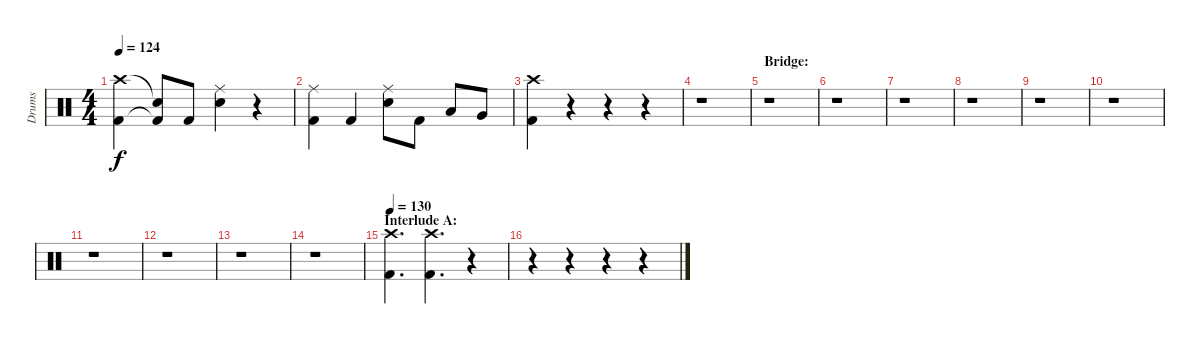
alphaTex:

\track ("Drums" "Drums") {instrument percussion}
\staff {score}
\articulation defaults
\ts (4 4)
\tempo 124
\clef neutral
\ks c
("Crash high (hit)" "Kick (hit) 2").4{dy f} ("Snare (hit)"{t} "Kick (hit) 2"{t}).8 "Kick (hit) 2".8 ("Ride (middle)" "Electric Snare (hit)").4 r.4 |
("Ride (middle)" "Kick (hit) 2").4 "Kick (hit) 2".4 ("Ride (middle)" "Electric Snare (hit)").8 "Kick (hit) 2".8 "Low Tom (hit)".8 "Very Low Tom (hit)".8 |
("Crash high (hit)" "Kick (hit) 2").4 r.4 r.4 r.4 |
r.1 |
\section ("" "Bridge:")
r.1 |
r.1 |
r.1 |
r.1 |
r.1 |
r.1 |
r.1 |
r.1 |
r.1 |
r.1 |
\section ("" "Interlude A:")
\tempo 130
("Crash high (hit)" "Kick (hit) 2").4{d} ("Crash high (hit)" "Kick (hit) 2").4{d} r.4 |
r.4 r.4 r.4 r.4
